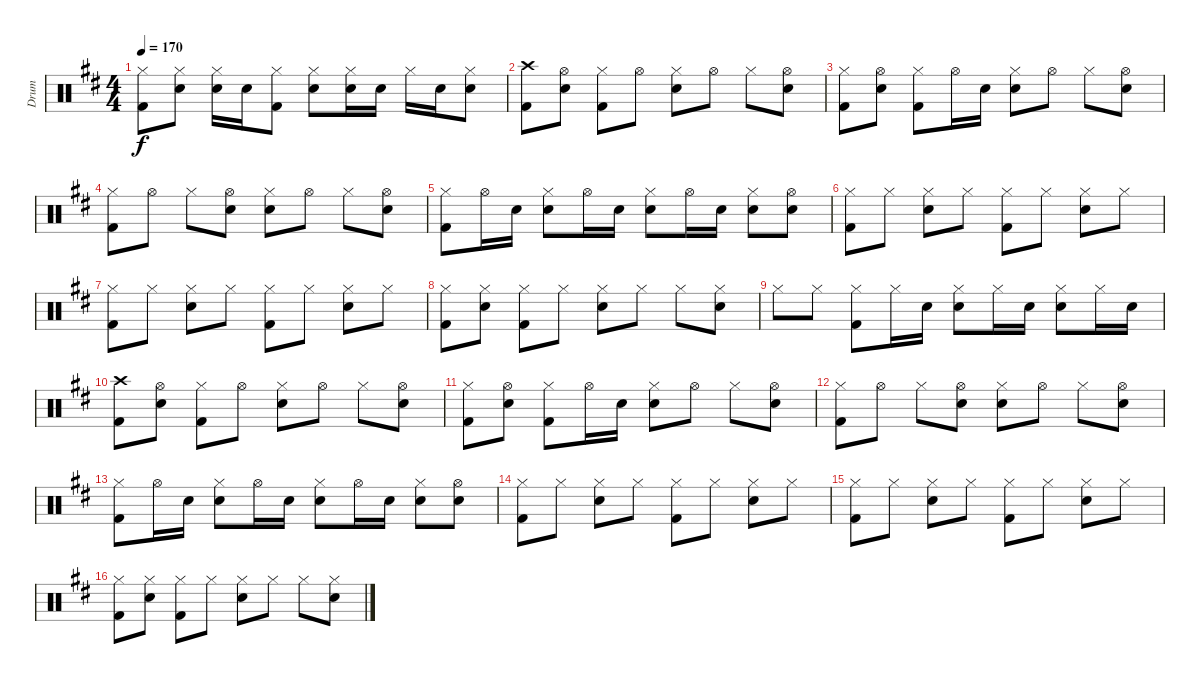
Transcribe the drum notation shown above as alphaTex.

\track ("Drum" "Drum") {instrument percussion}
\staff {score}
\articulation defaults
\ts (4 4)
\tempo 170
\clef neutral
\ks d
("Hi-Hat (closed)" "Kick (hit) 2").8{dy f} ("Hi-Hat (closed)" "Electric Snare (hit)").8 ("Hi-Hat (closed)" "Electric Snare (hit)").16 "Electric Snare (hit)".16 ("Hi-Hat (closed)" "Kick (hit) 2").8 ("Hi-Hat (closed)" "Electric Snare (hit)").8 ("Hi-Hat (closed)" "Electric Snare (hit)").16 "Electric Snare (hit)".16 "Hi-Hat (closed)".16 "Electric Snare (hit)".16 ("Hi-Hat (closed)" "Electric Snare (hit)").8 |
("Crash high (hit)" "Kick (hit) 2").8 ("Hi-Hat (open)" "Electric Snare (hit)").8 ("Hi-Hat (closed)" "Kick (hit) 2").8 "Hi-Hat (open)".8 ("Hi-Hat (closed)" "Electric Snare (hit)").8 "Hi-Hat (open)".8 "Hi-Hat (closed)".8 ("Hi-Hat (open)" "Electric Snare (hit)").8 |
("Hi-Hat (closed)" "Kick (hit) 2").8 ("Hi-Hat (open)" "Electric Snare (hit)").8 ("Hi-Hat (closed)" "Kick (hit) 2").8 "Hi-Hat (open)".16 "Electric Snare (hit)".16 ("Hi-Hat (closed)" "Electric Snare (hit)").8 "Hi-Hat (open)".8 "Hi-Hat (closed)".8 ("Hi-Hat (open)" "Electric Snare (hit)").8 |
("Hi-Hat (closed)" "Kick (hit) 2").8 "Hi-Hat (open)".8 "Hi-Hat (closed)".8 ("Hi-Hat (open)" "Electric Snare (hit)").8 ("Hi-Hat (closed)" "Electric Snare (hit)").8 "Hi-Hat (open)".8 "Hi-Hat (closed)".8 ("Hi-Hat (open)" "Electric Snare (hit)").8 |
("Hi-Hat (closed)" "Kick (hit) 2").8 "Hi-Hat (open)".16 "Electric Snare (hit)".16 ("Hi-Hat (closed)" "Electric Snare (hit)").8 "Hi-Hat (open)".16 "Electric Snare (hit)".16 ("Hi-Hat (closed)" "Electric Snare (hit)").8 "Hi-Hat (open)".16 "Electric Snare (hit)".16 ("Hi-Hat (closed)" "Electric Snare (hit)").8 ("Hi-Hat (open)" "Electric Snare (hit)").8 |
("Hi-Hat (closed)" "Kick (hit) 2").8 "Hi-Hat (closed)".8 ("Hi-Hat (closed)" "Electric Snare (hit)").8 "Hi-Hat (closed)".8 ("Hi-Hat (closed)" "Kick (hit) 2").8 "Hi-Hat (closed)".8 ("Hi-Hat (closed)" "Electric Snare (hit)").8 "Hi-Hat (closed)".8 |
("Hi-Hat (closed)" "Kick (hit) 2").8 "Hi-Hat (closed)".8 ("Hi-Hat (closed)" "Electric Snare (hit)").8 "Hi-Hat (closed)".8 ("Hi-Hat (closed)" "Kick (hit) 2").8 "Hi-Hat (closed)".8 ("Hi-Hat (closed)" "Electric Snare (hit)").8 "Hi-Hat (closed)".8 |
("Hi-Hat (closed)" "Kick (hit) 2").8 ("Hi-Hat (closed)" "Electric Snare (hit)").8 ("Hi-Hat (closed)" "Kick (hit) 2").8 "Hi-Hat (closed)".8 ("Hi-Hat (closed)" "Electric Snare (hit)").8 "Hi-Hat (closed)".8 "Hi-Hat (closed)".8 ("Hi-Hat (closed)" "Electric Snare (hit)").8 |
"Hi-Hat (closed)".8 "Hi-Hat (closed)".8 ("Hi-Hat (closed)" "Kick (hit) 2").8 "Hi-Hat (closed)".16 "Electric Snare (hit)".16 ("Hi-Hat (closed)" "Electric Snare (hit)").8 "Hi-Hat (closed)".16 "Electric Snare (hit)".16 ("Hi-Hat (closed)" "Electric Snare (hit)").8 "Hi-Hat (closed)".16 "Electric Snare (hit)".16 |
("Crash high (hit)" "Kick (hit) 2").8 ("Hi-Hat (open)" "Electric Snare (hit)").8 ("Hi-Hat (closed)" "Kick (hit) 2").8 "Hi-Hat (open)".8 ("Hi-Hat (closed)" "Electric Snare (hit)").8 "Hi-Hat (open)".8 "Hi-Hat (closed)".8 ("Hi-Hat (open)" "Electric Snare (hit)").8 |
("Hi-Hat (closed)" "Kick (hit) 2").8 ("Hi-Hat (open)" "Electric Snare (hit)").8 ("Hi-Hat (closed)" "Kick (hit) 2").8 "Hi-Hat (open)".16 "Electric Snare (hit)".16 ("Hi-Hat (closed)" "Electric Snare (hit)").8 "Hi-Hat (open)".8 "Hi-Hat (closed)".8 ("Hi-Hat (open)" "Electric Snare (hit)").8 |
("Hi-Hat (closed)" "Kick (hit) 2").8 "Hi-Hat (open)".8 "Hi-Hat (closed)".8 ("Hi-Hat (open)" "Electric Snare (hit)").8 ("Hi-Hat (closed)" "Electric Snare (hit)").8 "Hi-Hat (open)".8 "Hi-Hat (closed)".8 ("Hi-Hat (open)" "Electric Snare (hit)").8 |
("Hi-Hat (closed)" "Kick (hit) 2").8 "Hi-Hat (open)".16 "Electric Snare (hit)".16 ("Hi-Hat (closed)" "Electric Snare (hit)").8 "Hi-Hat (open)".16 "Electric Snare (hit)".16 ("Hi-Hat (closed)" "Electric Snare (hit)").8 "Hi-Hat (open)".16 "Electric Snare (hit)".16 ("Hi-Hat (closed)" "Electric Snare (hit)").8 ("Hi-Hat (open)" "Electric Snare (hit)").8 |
("Hi-Hat (closed)" "Kick (hit) 2").8 "Hi-Hat (closed)".8 ("Hi-Hat (closed)" "Electric Snare (hit)").8 "Hi-Hat (closed)".8 ("Hi-Hat (closed)" "Kick (hit) 2").8 "Hi-Hat (closed)".8 ("Hi-Hat (closed)" "Electric Snare (hit)").8 "Hi-Hat (closed)".8 |
("Hi-Hat (closed)" "Kick (hit) 2").8 "Hi-Hat (closed)".8 ("Hi-Hat (closed)" "Electric Snare (hit)").8 "Hi-Hat (closed)".8 ("Hi-Hat (closed)" "Kick (hit) 2").8 "Hi-Hat (closed)".8 ("Hi-Hat (closed)" "Electric Snare (hit)").8 "Hi-Hat (closed)".8 |
("Hi-Hat (closed)" "Kick (hit) 2").8 ("Hi-Hat (closed)" "Electric Snare (hit)").8 ("Hi-Hat (closed)" "Kick (hit) 2").8 "Hi-Hat (closed)".8 ("Hi-Hat (closed)" "Electric Snare (hit)").8 "Hi-Hat (closed)".8 "Hi-Hat (closed)".8 ("Hi-Hat (closed)" "Electric Snare (hit)").8
